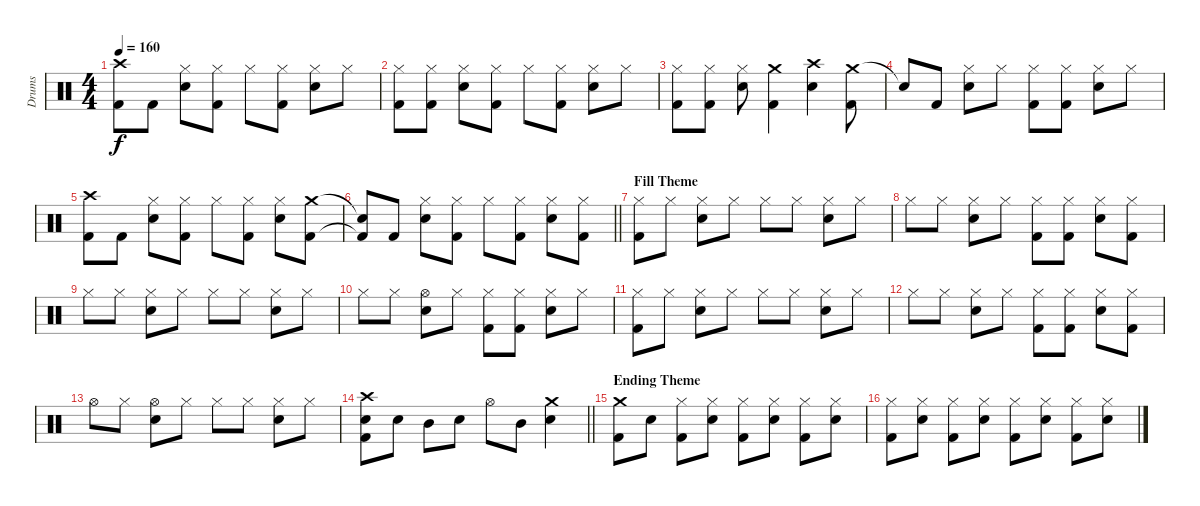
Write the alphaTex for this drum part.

\track ("Drums" "Drums") {instrument percussion}
\staff {score}
\articulation defaults
\ts (4 4)
\tempo 160
\clef neutral
\ks c
("Crash high (hit)" "Kick (hit) 2").8{dy f} "Kick (hit) 2".8 ("Hi-Hat (closed)" "Snare (hit) 2").8 ("Hi-Hat (closed)" "Kick (hit) 2").8 "Hi-Hat (closed)".8 ("Hi-Hat (closed)" "Kick (hit) 2").8 ("Hi-Hat (closed)" "Snare (hit) 2").8 "Hi-Hat (closed)".8 |
("Hi-Hat (closed)" "Kick (hit) 2").8 ("Hi-Hat (closed)" "Kick (hit) 2").8 ("Hi-Hat (closed)" "Snare (hit) 2").8 ("Hi-Hat (closed)" "Kick (hit) 2").8 "Hi-Hat (closed)".8 ("Hi-Hat (closed)" "Kick (hit) 2").8 ("Hi-Hat (closed)" "Snare (hit) 2").8 "Hi-Hat (closed)".8 |
("Hi-Hat (closed)" "Kick (hit) 2").8 ("Hi-Hat (closed)" "Kick (hit) 2").8 ("Hi-Hat (closed)" "Snare (hit) 2").8 ("Crash medium (hit)" "Kick (hit) 2").4 ("Crash high (hit)" "Snare (hit) 2").4 ("Crash medium (hit)" "Kick (hit) 2").8 |
"Snare (hit)"{t}.8 "Kick (hit) 2".8 ("Hi-Hat (closed)" "Snare (hit) 2").8 "Hi-Hat (closed)".8 ("Hi-Hat (closed)" "Kick (hit) 2").8 ("Hi-Hat (closed)" "Kick (hit) 2").8 ("Hi-Hat (closed)" "Snare (hit) 2").8 "Hi-Hat (closed)".8 |
("Crash high (hit)" "Kick (hit) 2").8 "Kick (hit) 2".8 ("Hi-Hat (closed)" "Snare (hit) 2").8 ("Hi-Hat (closed)" "Kick (hit) 2").8 "Hi-Hat (closed)".8 ("Hi-Hat (closed)" "Kick (hit) 2").8 ("Hi-Hat (closed)" "Snare (hit) 2").8 ("Crash medium (hit)" "Kick (hit) 2").8 |
\barLineRight lightlight
("Snare (hit)"{t} "Kick (hit) 2"{t}).8 "Kick (hit) 2".8 ("Hi-Hat (closed)" "Snare (hit) 2").8 ("Hi-Hat (closed)" "Kick (hit) 2").8 "Hi-Hat (closed)".8 ("Hi-Hat (closed)" "Kick (hit) 2").8 ("Hi-Hat (closed)" "Snare (hit) 2").8 ("Hi-Hat (closed)" "Kick (hit) 2").8 |
\section ("" "Fill Theme")
("Hi-Hat (closed)" "Kick (hit) 2").8 "Hi-Hat (closed)".8 ("Hi-Hat (closed)" "Snare (hit) 2").8 "Hi-Hat (closed)".8 "Hi-Hat (closed)".8 "Hi-Hat (closed)".8 ("Hi-Hat (closed)" "Snare (hit) 2").8 "Hi-Hat (closed)".8 |
"Hi-Hat (closed)".8 "Hi-Hat (closed)".8 ("Hi-Hat (closed)" "Snare (hit) 2").8 "Hi-Hat (closed)".8 ("Hi-Hat (closed)" "Kick (hit) 2").8 ("Hi-Hat (closed)" "Kick (hit) 2").8 ("Hi-Hat (closed)" "Snare (hit) 2").8 ("Hi-Hat (closed)" "Kick (hit) 2").8 |
"Hi-Hat (closed)".8 "Hi-Hat (closed)".8 ("Hi-Hat (closed)" "Snare (hit) 2").8 "Hi-Hat (closed)".8 "Hi-Hat (closed)".8 "Hi-Hat (closed)".8 ("Hi-Hat (closed)" "Snare (hit) 2").8 "Hi-Hat (closed)".8 |
"Hi-Hat (closed)".8 "Hi-Hat (closed)".8 ("Hi-Hat (open)" "Snare (hit) 2").8 "Hi-Hat (closed)".8 ("Hi-Hat (closed)" "Kick (hit) 2").8 ("Hi-Hat (closed)" "Kick (hit) 2").8 ("Hi-Hat (closed)" "Snare (hit) 2").8 "Hi-Hat (closed)".8 |
("Hi-Hat (closed)" "Kick (hit) 2").8 "Hi-Hat (closed)".8 ("Hi-Hat (closed)" "Snare (hit) 2").8 "Hi-Hat (closed)".8 "Hi-Hat (closed)".8 "Hi-Hat (closed)".8 ("Hi-Hat (closed)" "Snare (hit) 2").8 "Hi-Hat (closed)".8 |
"Hi-Hat (closed)".8 "Hi-Hat (closed)".8 ("Hi-Hat (closed)" "Snare (hit) 2").8 "Hi-Hat (closed)".8 ("Hi-Hat (closed)" "Kick (hit) 2").8 ("Hi-Hat (closed)" "Kick (hit) 2").8 ("Hi-Hat (closed)" "Snare (hit) 2").8 ("Hi-Hat (closed)" "Kick (hit) 2").8 |
"Hi-Hat (open)".8 "Hi-Hat (closed)".8 ("Hi-Hat (open)" "Snare (hit) 2").8 "Hi-Hat (closed)".8 "Hi-Hat (closed)".8 "Hi-Hat (closed)".8 ("Hi-Hat (closed)" "Snare (hit) 2").8 "Hi-Hat (closed)".8 |
\barLineRight lightlight
("Crash high (hit)" "Snare (hit) 2" "Kick (hit) 2").8 "Snare (hit) 2".8 "Mid Tom (hit)".8 "Snare (hit) 2".8 "Hi-Hat (open)".8 "Mid Tom (hit)".8 ("Crash medium (hit)" "Snare (hit) 2").4 |
\section ("" "Ending Theme")
("Crash medium (hit)" "Kick (hit) 2").8 "Snare (hit) 2".8 ("Hi-Hat (closed)" "Kick (hit) 2").8 ("Hi-Hat (closed)" "Snare (hit) 2").8 ("Hi-Hat (closed)" "Kick (hit) 2").8 ("Hi-Hat (closed)" "Snare (hit) 2").8 ("Hi-Hat (closed)" "Kick (hit) 2").8 ("Hi-Hat (closed)" "Snare (hit) 2").8 |
("Hi-Hat (closed)" "Kick (hit) 2").8 ("Hi-Hat (closed)" "Snare (hit) 2").8 ("Hi-Hat (closed)" "Kick (hit) 2").8 ("Hi-Hat (closed)" "Snare (hit) 2").8 ("Hi-Hat (closed)" "Kick (hit) 2").8 ("Hi-Hat (closed)" "Snare (hit) 2").8 ("Hi-Hat (closed)" "Kick (hit) 2").8 ("Hi-Hat (closed)" "Snare (hit) 2").8
